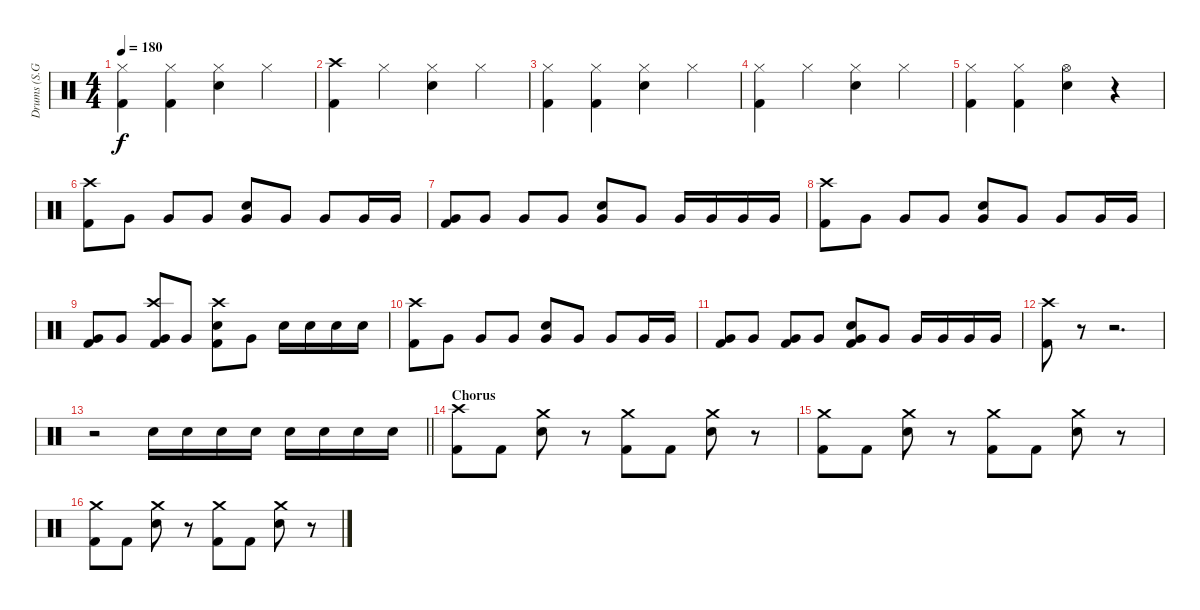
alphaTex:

\track ("Drums (S.G. Yim)" "Drums (S.G") {instrument percussion}
\staff {score}
\articulation defaults
\ts (4 4)
\tempo 180
\clef neutral
\ks c
("Hi-Hat (closed)" "Kick (hit) 2").4{dy f} ("Hi-Hat (closed)" "Kick (hit) 2").4 ("Hi-Hat (closed)" "Snare (hit) 2").4 "Hi-Hat (closed)".4 |
("Crash high (hit)" "Kick (hit) 2").4 "Hi-Hat (closed)".4 ("Hi-Hat (closed)" "Snare (hit) 2").4 "Hi-Hat (closed)".4 |
("Hi-Hat (closed)" "Kick (hit) 2").4 ("Hi-Hat (closed)" "Kick (hit) 2").4 ("Hi-Hat (closed)" "Snare (hit) 2").4 "Hi-Hat (closed)".4 |
("Hi-Hat (closed)" "Kick (hit) 2").4 "Hi-Hat (closed)".4 ("Hi-Hat (closed)" "Snare (hit) 2").4 "Hi-Hat (closed)".4 |
("Hi-Hat (closed)" "Kick (hit) 2").4 ("Hi-Hat (closed)" "Kick (hit) 2").4 ("Hi-Hat (open)" "Snare (hit) 2").4 r.4 |
("Crash high (hit)" "Kick (hit) 2").8 "Very Low Tom (hit)".8 "Very Low Tom (hit)".8 "Very Low Tom (hit)".8 ("Snare (hit) 2" "Very Low Tom (hit)").8 "Very Low Tom (hit)".8 "Very Low Tom (hit)".8 "Very Low Tom (hit)".16 "Very Low Tom (hit)".16 |
("Very Low Tom (hit)" "Kick (hit) 2").8 "Very Low Tom (hit)".8 "Very Low Tom (hit)".8 "Very Low Tom (hit)".8 ("Snare (hit) 2" "Very Low Tom (hit)").8 "Very Low Tom (hit)".8 "Very Low Tom (hit)".16 "Very Low Tom (hit)".16 "Very Low Tom (hit)".16 "Very Low Tom (hit)".16 |
("Crash high (hit)" "Kick (hit) 2").8 "Very Low Tom (hit)".8 "Very Low Tom (hit)".8 "Very Low Tom (hit)".8 ("Snare (hit) 2" "Very Low Tom (hit)").8 "Very Low Tom (hit)".8 "Very Low Tom (hit)".8 "Very Low Tom (hit)".16 "Very Low Tom (hit)".16 |
("Very Low Tom (hit)" "Kick (hit) 2").8 "Very Low Tom (hit)".8 ("Crash high (hit)" "Very Low Tom (hit)" "Kick (hit) 2").8 "Very Low Tom (hit)".8 ("Crash high (hit)" "Snare (hit) 2" "Kick (hit) 2").8 "Very Low Tom (hit)".8 "Snare (hit) 2".16 "Snare (hit) 2".16 "Snare (hit) 2".16 "Snare (hit) 2".16 |
("Crash high (hit)" "Kick (hit) 2").8 "Very Low Tom (hit)".8 "Very Low Tom (hit)".8 "Very Low Tom (hit)".8 ("Snare (hit) 2" "Very Low Tom (hit)").8 "Very Low Tom (hit)".8 "Very Low Tom (hit)".8 "Very Low Tom (hit)".16 "Very Low Tom (hit)".16 |
("Very Low Tom (hit)" "Kick (hit) 2").8 "Very Low Tom (hit)".8 ("Very Low Tom (hit)" "Kick (hit) 2").8 "Very Low Tom (hit)".8 ("Snare (hit) 2" "Very Low Tom (hit)" "Kick (hit) 2").8 "Very Low Tom (hit)".8 "Very Low Tom (hit)".16 "Very Low Tom (hit)".16 "Very Low Tom (hit)".16 "Very Low Tom (hit)".16 |
("Crash high (hit)" "Kick (hit) 2").8 r.8 r.2{d} |
\barLineRight lightlight
r.2 "Snare (hit) 2".16 "Snare (hit) 2".16 "Snare (hit) 2".16 "Snare (hit) 2".16 "Snare (hit) 2".16 "Snare (hit) 2".16 "Snare (hit) 2".16 "Snare (hit) 2".16 |
\section ("" "Chorus")
("Crash high (hit)" "Kick (hit) 2").8 "Kick (hit) 2".8 ("Crash medium (hit)" "Snare (hit) 2").8 r.8 ("Crash medium (hit)" "Kick (hit) 2").8 "Kick (hit) 2".8 ("Crash medium (hit)" "Snare (hit) 2").8 r.8 |
("Crash medium (hit)" "Kick (hit) 2").8 "Kick (hit) 2".8 ("Crash medium (hit)" "Snare (hit) 2").8 r.8 ("Crash medium (hit)" "Kick (hit) 2").8 "Kick (hit) 2".8 ("Crash medium (hit)" "Snare (hit) 2").8 r.8 |
("Crash medium (hit)" "Kick (hit) 2").8 "Kick (hit) 2".8 ("Crash medium (hit)" "Snare (hit) 2").8 r.8 ("Crash medium (hit)" "Kick (hit) 2").8 "Kick (hit) 2".8 ("Crash medium (hit)" "Snare (hit) 2").8 r.8
